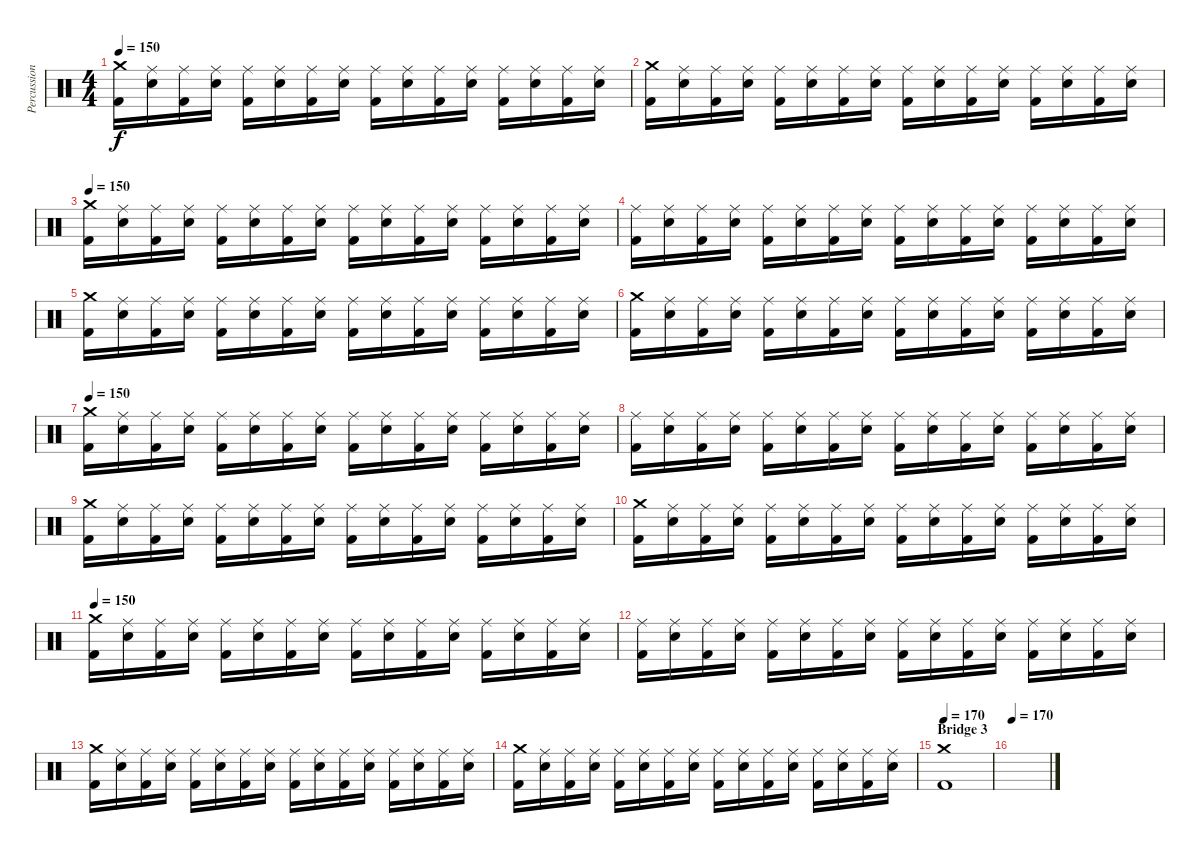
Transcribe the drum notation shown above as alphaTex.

\track ("Percussion" "Percussion") {instrument percussion}
\staff {score}
\articulation defaults
\ts (4 4)
\tempo 150
\clef neutral
\ks c
("Crash medium (hit)" "Kick (hit) 2").16{dy f} ("Ride (middle)" "Electric Snare (hit)").16 ("Ride (middle)" "Kick (hit) 2").16 ("Ride (middle)" "Electric Snare (hit)").16 ("Ride (middle)" "Kick (hit) 2").16 ("Ride (middle)" "Electric Snare (hit)").16 ("Ride (middle)" "Kick (hit) 2").16 ("Ride (middle)" "Electric Snare (hit)").16 ("Ride (middle)" "Kick (hit) 2").16 ("Ride (middle)" "Electric Snare (hit)").16 ("Ride (middle)" "Kick (hit) 2").16 ("Ride (middle)" "Electric Snare (hit)").16 ("Ride (middle)" "Kick (hit) 2").16 ("Ride (middle)" "Electric Snare (hit)").16 ("Ride (middle)" "Kick (hit) 2").16 ("Ride (middle)" "Electric Snare (hit)").16 |
("Crash medium (hit)" "Kick (hit) 2").16 ("Ride (middle)" "Electric Snare (hit)").16 ("Ride (middle)" "Kick (hit) 2").16 ("Ride (middle)" "Electric Snare (hit)").16 ("Ride (middle)" "Kick (hit) 2").16 ("Ride (middle)" "Electric Snare (hit)").16 ("Ride (middle)" "Kick (hit) 2").16 ("Ride (middle)" "Electric Snare (hit)").16 ("Ride (middle)" "Kick (hit) 2").16 ("Ride (middle)" "Electric Snare (hit)").16 ("Ride (middle)" "Kick (hit) 2").16 ("Ride (middle)" "Electric Snare (hit)").16 ("Ride (middle)" "Kick (hit) 2").16 ("Ride (middle)" "Electric Snare (hit)").16 ("Ride (middle)" "Kick (hit) 2").16 ("Ride (middle)" "Electric Snare (hit)").16 |
\tempo 150
("Crash medium (hit)" "Kick (hit) 2").16 ("Ride (middle)" "Electric Snare (hit)").16 ("Ride (middle)" "Kick (hit) 2").16 ("Ride (middle)" "Electric Snare (hit)").16 ("Ride (middle)" "Kick (hit) 2").16 ("Ride (middle)" "Electric Snare (hit)").16 ("Ride (middle)" "Kick (hit) 2").16 ("Ride (middle)" "Electric Snare (hit)").16 ("Ride (middle)" "Kick (hit) 2").16 ("Ride (middle)" "Electric Snare (hit)").16 ("Ride (middle)" "Kick (hit) 2").16 ("Ride (middle)" "Electric Snare (hit)").16 ("Ride (middle)" "Kick (hit) 2").16 ("Ride (middle)" "Electric Snare (hit)").16 ("Ride (middle)" "Kick (hit) 2").16 ("Ride (middle)" "Electric Snare (hit)").16 |
("Ride (middle)" "Kick (hit) 2").16 ("Ride (middle)" "Electric Snare (hit)").16 ("Ride (middle)" "Kick (hit) 2").16 ("Ride (middle)" "Electric Snare (hit)").16 ("Ride (middle)" "Kick (hit) 2").16 ("Ride (middle)" "Electric Snare (hit)").16 ("Ride (middle)" "Kick (hit) 2").16 ("Ride (middle)" "Electric Snare (hit)").16 ("Ride (middle)" "Kick (hit) 2").16 ("Ride (middle)" "Electric Snare (hit)").16 ("Ride (middle)" "Kick (hit) 2").16 ("Ride (middle)" "Electric Snare (hit)").16 ("Ride (middle)" "Kick (hit) 2").16 ("Ride (middle)" "Electric Snare (hit)").16 ("Ride (middle)" "Kick (hit) 2").16 ("Ride (middle)" "Electric Snare (hit)").16 |
("Crash medium (hit)" "Kick (hit) 2").16 ("Ride (middle)" "Electric Snare (hit)").16 ("Ride (middle)" "Kick (hit) 2").16 ("Ride (middle)" "Electric Snare (hit)").16 ("Ride (middle)" "Kick (hit) 2").16 ("Ride (middle)" "Electric Snare (hit)").16 ("Ride (middle)" "Kick (hit) 2").16 ("Ride (middle)" "Electric Snare (hit)").16 ("Ride (middle)" "Kick (hit) 2").16 ("Ride (middle)" "Electric Snare (hit)").16 ("Ride (middle)" "Kick (hit) 2").16 ("Ride (middle)" "Electric Snare (hit)").16 ("Ride (middle)" "Kick (hit) 2").16 ("Ride (middle)" "Electric Snare (hit)").16 ("Ride (middle)" "Kick (hit) 2").16 ("Ride (middle)" "Electric Snare (hit)").16 |
("Crash medium (hit)" "Kick (hit) 2").16 ("Ride (middle)" "Electric Snare (hit)").16 ("Ride (middle)" "Kick (hit) 2").16 ("Ride (middle)" "Electric Snare (hit)").16 ("Ride (middle)" "Kick (hit) 2").16 ("Ride (middle)" "Electric Snare (hit)").16 ("Ride (middle)" "Kick (hit) 2").16 ("Ride (middle)" "Electric Snare (hit)").16 ("Ride (middle)" "Kick (hit) 2").16 ("Ride (middle)" "Electric Snare (hit)").16 ("Ride (middle)" "Kick (hit) 2").16 ("Ride (middle)" "Electric Snare (hit)").16 ("Ride (middle)" "Kick (hit) 2").16 ("Ride (middle)" "Electric Snare (hit)").16 ("Ride (middle)" "Kick (hit) 2").16 ("Ride (middle)" "Electric Snare (hit)").16 |
\tempo 150
("Crash medium (hit)" "Kick (hit) 2").16 ("Ride (middle)" "Electric Snare (hit)").16 ("Ride (middle)" "Kick (hit) 2").16 ("Ride (middle)" "Electric Snare (hit)").16 ("Ride (middle)" "Kick (hit) 2").16 ("Ride (middle)" "Electric Snare (hit)").16 ("Ride (middle)" "Kick (hit) 2").16 ("Ride (middle)" "Electric Snare (hit)").16 ("Ride (middle)" "Kick (hit) 2").16 ("Ride (middle)" "Electric Snare (hit)").16 ("Ride (middle)" "Kick (hit) 2").16 ("Ride (middle)" "Electric Snare (hit)").16 ("Ride (middle)" "Kick (hit) 2").16 ("Ride (middle)" "Electric Snare (hit)").16 ("Ride (middle)" "Kick (hit) 2").16 ("Ride (middle)" "Electric Snare (hit)").16 |
("Ride (middle)" "Kick (hit) 2").16 ("Ride (middle)" "Electric Snare (hit)").16 ("Ride (middle)" "Kick (hit) 2").16 ("Ride (middle)" "Electric Snare (hit)").16 ("Ride (middle)" "Kick (hit) 2").16 ("Ride (middle)" "Electric Snare (hit)").16 ("Ride (middle)" "Kick (hit) 2").16 ("Ride (middle)" "Electric Snare (hit)").16 ("Ride (middle)" "Kick (hit) 2").16 ("Ride (middle)" "Electric Snare (hit)").16 ("Ride (middle)" "Kick (hit) 2").16 ("Ride (middle)" "Electric Snare (hit)").16 ("Ride (middle)" "Kick (hit) 2").16 ("Ride (middle)" "Electric Snare (hit)").16 ("Ride (middle)" "Kick (hit) 2").16 ("Ride (middle)" "Electric Snare (hit)").16 |
("Crash medium (hit)" "Kick (hit) 2").16 ("Ride (middle)" "Electric Snare (hit)").16 ("Ride (middle)" "Kick (hit) 2").16 ("Ride (middle)" "Electric Snare (hit)").16 ("Ride (middle)" "Kick (hit) 2").16 ("Ride (middle)" "Electric Snare (hit)").16 ("Ride (middle)" "Kick (hit) 2").16 ("Ride (middle)" "Electric Snare (hit)").16 ("Ride (middle)" "Kick (hit) 2").16 ("Ride (middle)" "Electric Snare (hit)").16 ("Ride (middle)" "Kick (hit) 2").16 ("Ride (middle)" "Electric Snare (hit)").16 ("Ride (middle)" "Kick (hit) 2").16 ("Ride (middle)" "Electric Snare (hit)").16 ("Ride (middle)" "Kick (hit) 2").16 ("Ride (middle)" "Electric Snare (hit)").16 |
("Crash medium (hit)" "Kick (hit) 2").16 ("Ride (middle)" "Electric Snare (hit)").16 ("Ride (middle)" "Kick (hit) 2").16 ("Ride (middle)" "Electric Snare (hit)").16 ("Ride (middle)" "Kick (hit) 2").16 ("Ride (middle)" "Electric Snare (hit)").16 ("Ride (middle)" "Kick (hit) 2").16 ("Ride (middle)" "Electric Snare (hit)").16 ("Ride (middle)" "Kick (hit) 2").16 ("Ride (middle)" "Electric Snare (hit)").16 ("Ride (middle)" "Kick (hit) 2").16 ("Ride (middle)" "Electric Snare (hit)").16 ("Ride (middle)" "Kick (hit) 2").16 ("Ride (middle)" "Electric Snare (hit)").16 ("Ride (middle)" "Kick (hit) 2").16 ("Ride (middle)" "Electric Snare (hit)").16 |
\tempo 150
("Crash medium (hit)" "Kick (hit) 2").16 ("Ride (middle)" "Electric Snare (hit)").16 ("Ride (middle)" "Kick (hit) 2").16 ("Ride (middle)" "Electric Snare (hit)").16 ("Ride (middle)" "Kick (hit) 2").16 ("Ride (middle)" "Electric Snare (hit)").16 ("Ride (middle)" "Kick (hit) 2").16 ("Ride (middle)" "Electric Snare (hit)").16 ("Ride (middle)" "Kick (hit) 2").16 ("Ride (middle)" "Electric Snare (hit)").16 ("Ride (middle)" "Kick (hit) 2").16 ("Ride (middle)" "Electric Snare (hit)").16 ("Ride (middle)" "Kick (hit) 2").16 ("Ride (middle)" "Electric Snare (hit)").16 ("Ride (middle)" "Kick (hit) 2").16 ("Ride (middle)" "Electric Snare (hit)").16 |
("Ride (middle)" "Kick (hit) 2").16 ("Ride (middle)" "Electric Snare (hit)").16 ("Ride (middle)" "Kick (hit) 2").16 ("Ride (middle)" "Electric Snare (hit)").16 ("Ride (middle)" "Kick (hit) 2").16 ("Ride (middle)" "Electric Snare (hit)").16 ("Ride (middle)" "Kick (hit) 2").16 ("Ride (middle)" "Electric Snare (hit)").16 ("Ride (middle)" "Kick (hit) 2").16 ("Ride (middle)" "Electric Snare (hit)").16 ("Ride (middle)" "Kick (hit) 2").16 ("Ride (middle)" "Electric Snare (hit)").16 ("Ride (middle)" "Kick (hit) 2").16 ("Ride (middle)" "Electric Snare (hit)").16 ("Ride (middle)" "Kick (hit) 2").16 ("Ride (middle)" "Electric Snare (hit)").16 |
("Crash medium (hit)" "Kick (hit) 2").16 ("Ride (middle)" "Electric Snare (hit)").16 ("Ride (middle)" "Kick (hit) 2").16 ("Ride (middle)" "Electric Snare (hit)").16 ("Ride (middle)" "Kick (hit) 2").16 ("Ride (middle)" "Electric Snare (hit)").16 ("Ride (middle)" "Kick (hit) 2").16 ("Ride (middle)" "Electric Snare (hit)").16 ("Ride (middle)" "Kick (hit) 2").16 ("Ride (middle)" "Electric Snare (hit)").16 ("Ride (middle)" "Kick (hit) 2").16 ("Ride (middle)" "Electric Snare (hit)").16 ("Ride (middle)" "Kick (hit) 2").16 ("Ride (middle)" "Electric Snare (hit)").16 ("Ride (middle)" "Kick (hit) 2").16 ("Ride (middle)" "Electric Snare (hit)").16 |
("Crash medium (hit)" "Kick (hit) 2").16 ("Ride (middle)" "Electric Snare (hit)").16 ("Ride (middle)" "Kick (hit) 2").16 ("Ride (middle)" "Electric Snare (hit)").16 ("Ride (middle)" "Kick (hit) 2").16 ("Ride (middle)" "Electric Snare (hit)").16 ("Ride (middle)" "Kick (hit) 2").16 ("Ride (middle)" "Electric Snare (hit)").16 ("Ride (middle)" "Kick (hit) 2").16 ("Ride (middle)" "Electric Snare (hit)").16 ("Ride (middle)" "Kick (hit) 2").16 ("Ride (middle)" "Electric Snare (hit)").16 ("Ride (middle)" "Kick (hit) 2").16 ("Ride (middle)" "Electric Snare (hit)").16 ("Ride (middle)" "Kick (hit) 2").16 ("Ride (middle)" "Electric Snare (hit)").16 |
\section ("" "Bridge 3")
\tempo 170
("Crash medium (hit)" "Kick (hit) 2").1 |
\tempo 170
